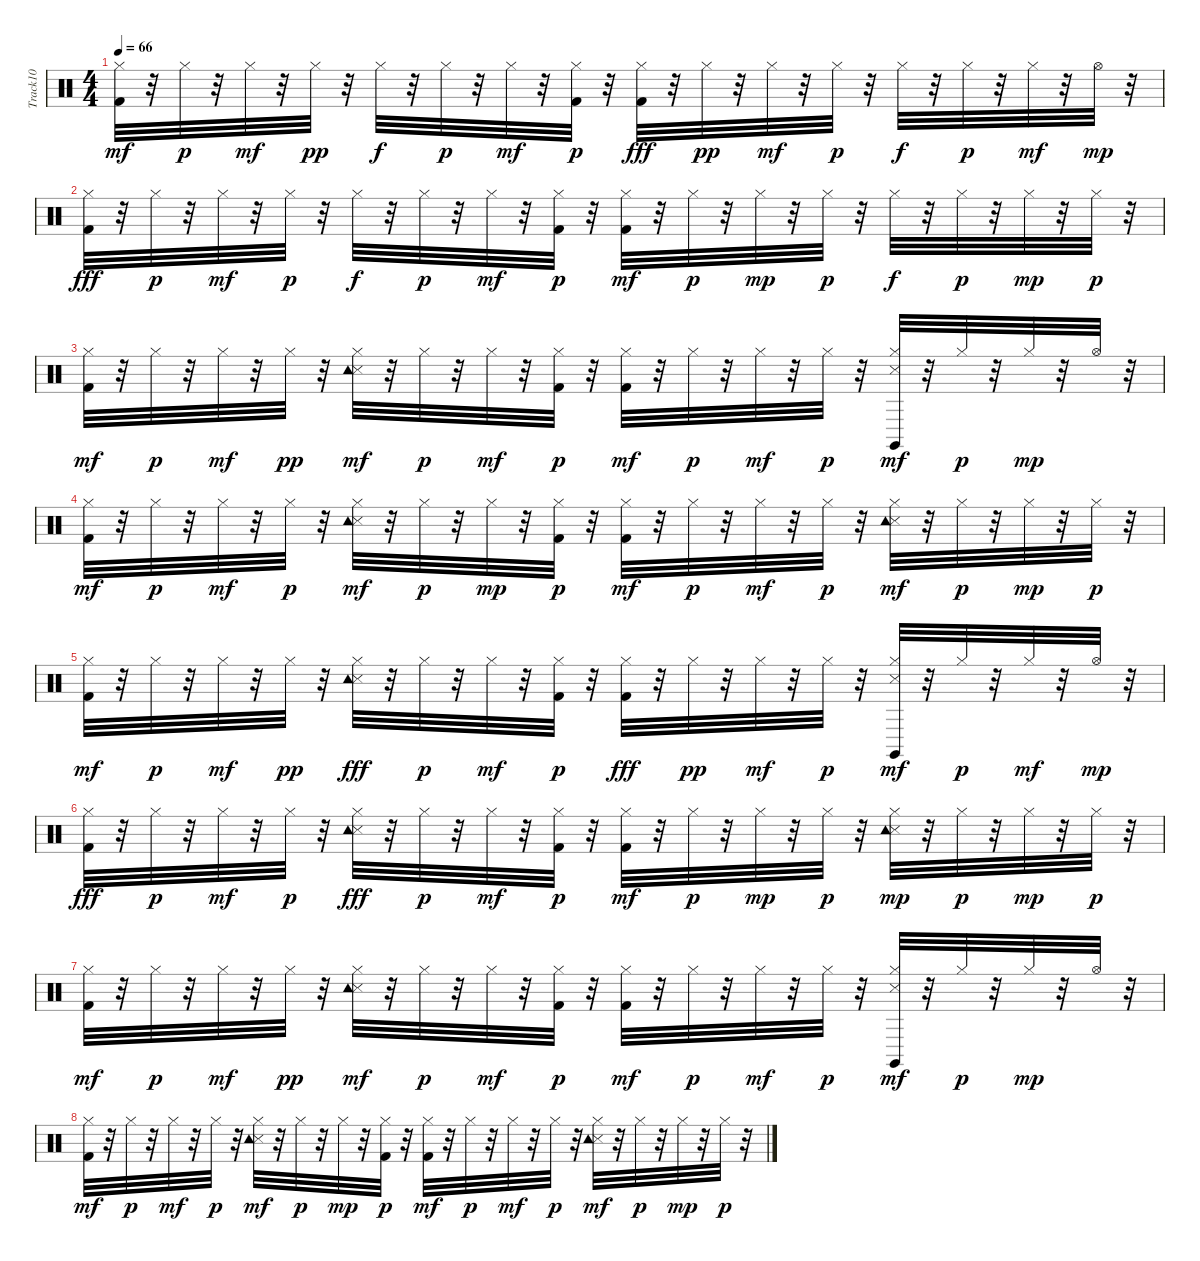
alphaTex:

\track ("Track10" "Track10") {instrument percussion}
\staff {score}
\articulation defaults
\ts (4 4)
\tempo 66
\clef neutral
\ks c
("Kick (hit) 2" "Hi-Hat (closed)").32{dy mf} r.32 "Hi-Hat (closed)".32{dy p} r.32 "Hi-Hat (closed)".32{dy mf} r.32 "Hi-Hat (closed)".32{dy pp} r.32 "Hi-Hat (closed)".32{dy f} r.32 "Hi-Hat (closed)".32{dy p} r.32 "Hi-Hat (closed)".32{dy mf} r.32 ("Kick (hit) 2" "Hi-Hat (closed)").32{dy p} r.32 ("Kick (hit) 2" "Hi-Hat (closed)").32{dy fff} r.32 "Hi-Hat (closed)".32{dy pp} r.32 "Hi-Hat (closed)".32{dy mf} r.32 "Hi-Hat (closed)".32{dy p} r.32 "Hi-Hat (closed)".32{dy f} r.32 "Hi-Hat (closed)".32{dy p} r.32 "Hi-Hat (closed)".32{dy mf} r.32 "Hi-Hat (open)".32{dy mp} r.32 |
("Kick (hit) 2" "Hi-Hat (closed)").32{dy fff} r.32 "Hi-Hat (closed)".32{dy p} r.32 "Hi-Hat (closed)".32{dy mf} r.32 "Hi-Hat (closed)".32{dy p} r.32 "Hi-Hat (closed)".32{dy f} r.32 "Hi-Hat (closed)".32{dy p} r.32 "Hi-Hat (closed)".32{dy mf} r.32 ("Kick (hit) 2" "Hi-Hat (closed)").32{dy p} r.32 ("Kick (hit) 2" "Hi-Hat (closed)").32{dy mf} r.32 "Hi-Hat (closed)".32{dy p} r.32 "Hi-Hat (closed)".32{dy mp} r.32 "Hi-Hat (closed)".32{dy p} r.32 "Hi-Hat (closed)".32{dy f} r.32 "Hi-Hat (closed)".32{dy p} r.32 "Hi-Hat (closed)".32{dy mp} r.32 "Hi-Hat (closed)".32{dy p} r.32 |
("Kick (hit) 2" "Hi-Hat (closed)").32{dy mf} r.32 "Hi-Hat (closed)".32{dy p} r.32 "Hi-Hat (closed)".32{dy mf} r.32 "Hi-Hat (closed)".32{dy pp} r.32 ("Snare (side stick) 3" "Tambourine (hit)" "Hi-Hat (closed)").32{dy mf} r.32 "Hi-Hat (closed)".32{dy p} r.32 "Hi-Hat (closed)".32{dy mf} r.32 ("Kick (hit) 2" "Hi-Hat (closed)").32{dy p} r.32 ("Kick (hit) 2" "Hi-Hat (closed)").32{dy mf} r.32 "Hi-Hat (closed)".32{dy p} r.32 "Hi-Hat (closed)".32{dy mf} r.32 "Hi-Hat (closed)".32{dy p} r.32 ("Snare (side stick) 3" "Claves (hit)" "Hi-Hat (closed)").32{dy mf} r.32 "Hi-Hat (closed)".32{dy p} r.32 "Hi-Hat (closed)".32{dy mp} r.32 "Hi-Hat (open)".32 r.32 |
("Kick (hit) 2" "Hi-Hat (closed)").32{dy mf} r.32 "Hi-Hat (closed)".32{dy p} r.32 "Hi-Hat (closed)".32{dy mf} r.32 "Hi-Hat (closed)".32{dy p} r.32 ("Snare (side stick) 3" "Tambourine (hit)" "Hi-Hat (closed)").32{dy mf} r.32 "Hi-Hat (closed)".32{dy p} r.32 "Hi-Hat (closed)".32{dy mp} r.32 ("Kick (hit) 2" "Hi-Hat (closed)").32{dy p} r.32 ("Kick (hit) 2" "Hi-Hat (closed)").32{dy mf} r.32 "Hi-Hat (closed)".32{dy p} r.32 "Hi-Hat (closed)".32{dy mf} r.32 "Hi-Hat (closed)".32{dy p} r.32 ("Snare (side stick) 3" "Tambourine (hit)" "Hi-Hat (closed)").32{dy mf} r.32 "Hi-Hat (closed)".32{dy p} r.32 "Hi-Hat (closed)".32{dy mp} r.32 "Hi-Hat (closed)".32{dy p} r.32 |
("Kick (hit) 2" "Hi-Hat (closed)").32{dy mf} r.32 "Hi-Hat (closed)".32{dy p} r.32 "Hi-Hat (closed)".32{dy mf} r.32 "Hi-Hat (closed)".32{dy pp} r.32 ("Snare (side stick) 3" "Tambourine (hit)" "Hi-Hat (closed)").32{dy fff} r.32 "Hi-Hat (closed)".32{dy p} r.32 "Hi-Hat (closed)".32{dy mf} r.32 ("Kick (hit) 2" "Hi-Hat (closed)").32{dy p} r.32 ("Kick (hit) 2" "Hi-Hat (closed)").32{dy fff} r.32 "Hi-Hat (closed)".32{dy pp} r.32 "Hi-Hat (closed)".32{dy mf} r.32 "Hi-Hat (closed)".32{dy p} r.32 ("Snare (side stick) 3" "Claves (hit)" "Hi-Hat (closed)").32{dy mf} r.32 "Hi-Hat (closed)".32{dy p} r.32 "Hi-Hat (closed)".32{dy mf} r.32 "Hi-Hat (open)".32{dy mp} r.32 |
("Kick (hit) 2" "Hi-Hat (closed)").32{dy fff} r.32 "Hi-Hat (closed)".32{dy p} r.32 "Hi-Hat (closed)".32{dy mf} r.32 "Hi-Hat (closed)".32{dy p} r.32 ("Snare (side stick) 3" "Tambourine (hit)" "Hi-Hat (closed)").32{dy fff} r.32 "Hi-Hat (closed)".32{dy p} r.32 "Hi-Hat (closed)".32{dy mf} r.32 ("Kick (hit) 2" "Hi-Hat (closed)").32{dy p} r.32 ("Kick (hit) 2" "Hi-Hat (closed)").32{dy mf} r.32 "Hi-Hat (closed)".32{dy p} r.32 "Hi-Hat (closed)".32{dy mp} r.32 "Hi-Hat (closed)".32{dy p} r.32 ("Snare (side stick) 3" "Tambourine (hit)" "Hi-Hat (closed)").32{dy mp} r.32 "Hi-Hat (closed)".32{dy p} r.32 "Hi-Hat (closed)".32{dy mp} r.32 "Hi-Hat (closed)".32{dy p} r.32 |
("Kick (hit) 2" "Hi-Hat (closed)").32{dy mf} r.32 "Hi-Hat (closed)".32{dy p} r.32 "Hi-Hat (closed)".32{dy mf} r.32 "Hi-Hat (closed)".32{dy pp} r.32 ("Snare (side stick) 3" "Tambourine (hit)" "Hi-Hat (closed)").32{dy mf} r.32 "Hi-Hat (closed)".32{dy p} r.32 "Hi-Hat (closed)".32{dy mf} r.32 ("Kick (hit) 2" "Hi-Hat (closed)").32{dy p} r.32 ("Kick (hit) 2" "Hi-Hat (closed)").32{dy mf} r.32 "Hi-Hat (closed)".32{dy p} r.32 "Hi-Hat (closed)".32{dy mf} r.32 "Hi-Hat (closed)".32{dy p} r.32 ("Snare (side stick) 3" "Claves (hit)" "Hi-Hat (closed)").32{dy mf} r.32 "Hi-Hat (closed)".32{dy p} r.32 "Hi-Hat (closed)".32{dy mp} r.32 "Hi-Hat (open)".32 r.32 |
("Kick (hit) 2" "Hi-Hat (closed)").32{dy mf} r.32 "Hi-Hat (closed)".32{dy p} r.32 "Hi-Hat (closed)".32{dy mf} r.32 "Hi-Hat (closed)".32{dy p} r.32 ("Snare (side stick) 3" "Tambourine (hit)" "Hi-Hat (closed)").32{dy mf} r.32 "Hi-Hat (closed)".32{dy p} r.32 "Hi-Hat (closed)".32{dy mp} r.32 ("Kick (hit) 2" "Hi-Hat (closed)").32{dy p} r.32 ("Kick (hit) 2" "Hi-Hat (closed)").32{dy mf} r.32 "Hi-Hat (closed)".32{dy p} r.32 "Hi-Hat (closed)".32{dy mf} r.32 "Hi-Hat (closed)".32{dy p} r.32 ("Snare (side stick) 3" "Tambourine (hit)" "Hi-Hat (closed)").32{dy mf} r.32 "Hi-Hat (closed)".32{dy p} r.32 "Hi-Hat (closed)".32{dy mp} r.32 "Hi-Hat (closed)".32{dy p} r.32
